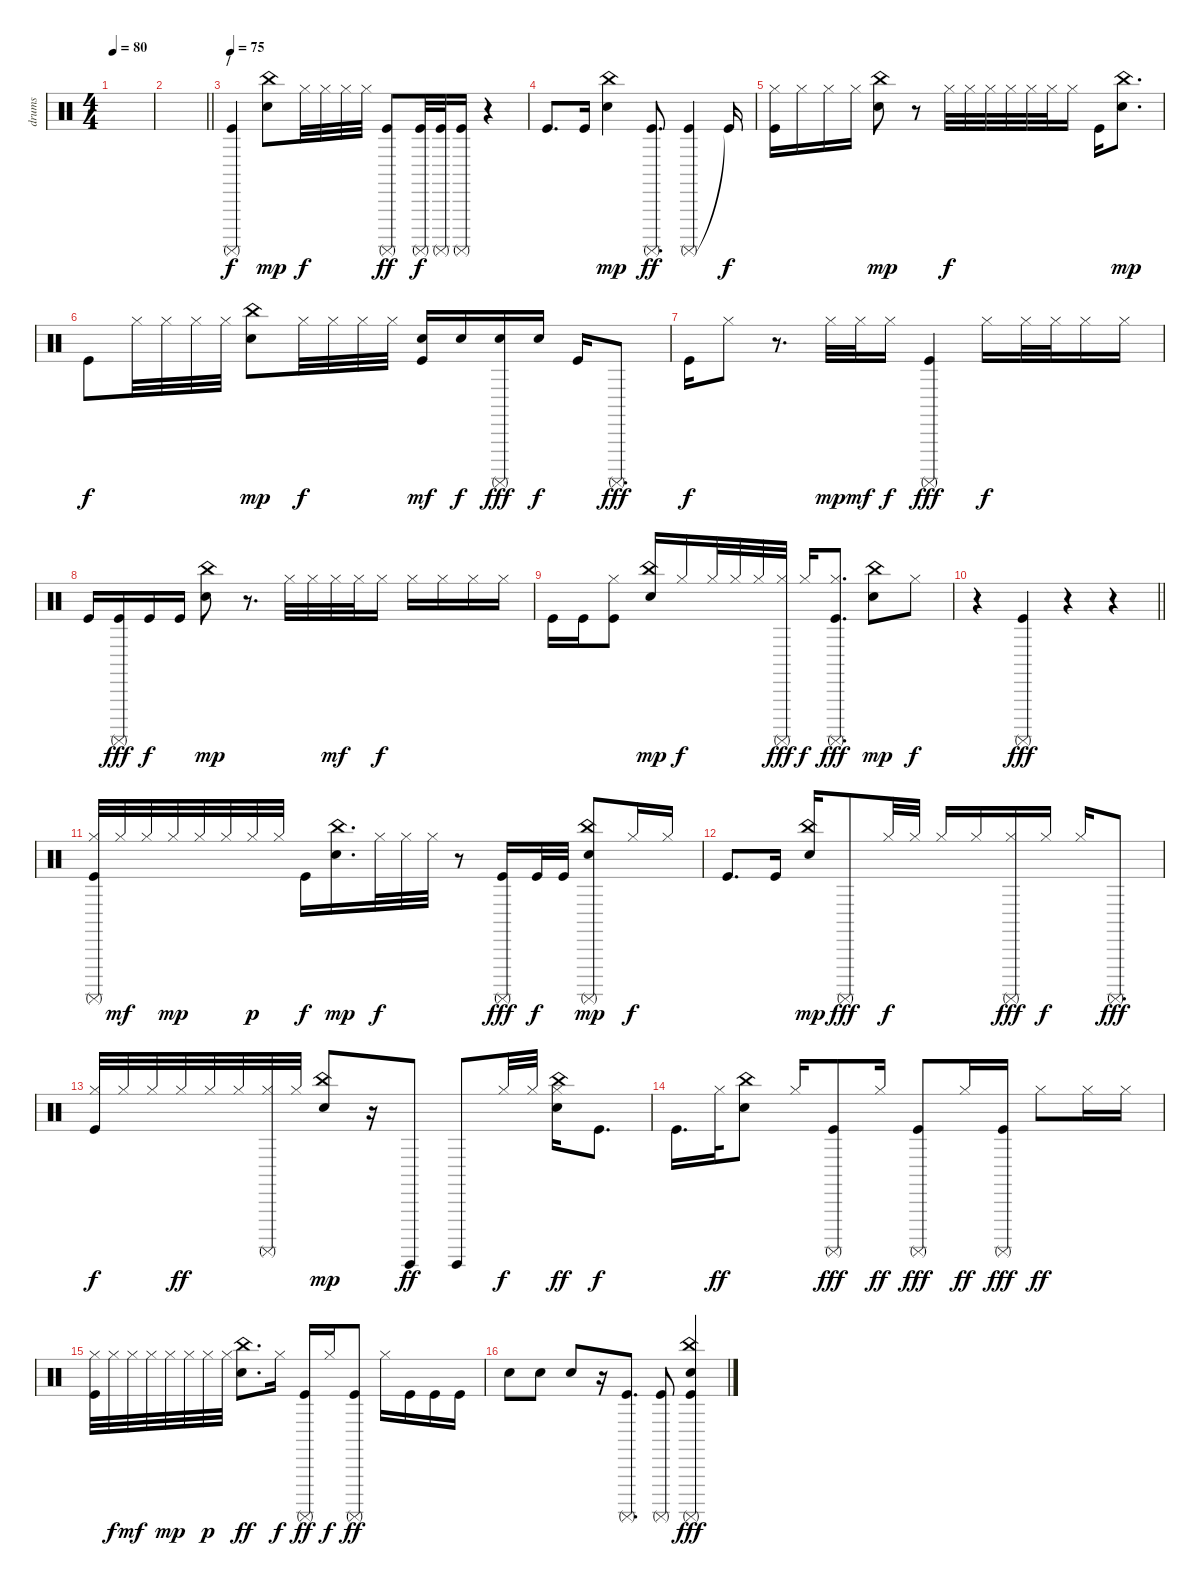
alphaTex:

\track ("drums" "drums") {instrument percussion}
\staff {score}
\articulation defaults
\ts (4 4)
\tempo 80
\clef neutral
\ks c
|
\barLineRight lightlight
|
\section ("" "/")
\tempo 75
("Surdo (mute)" "Kick (hit)").4 ("China (hit)" "Snare (hit) 2").8{dy mp} "Hi-Hat (closed)".32{dy f} "Hi-Hat (closed)".32 "Hi-Hat (closed)".32 "Hi-Hat (closed)".32 ("Surdo (mute)" "Kick (hit)").8{dy ff} ("Surdo (mute)" "Kick (hit)").32{dy f} ("Surdo (mute)" "Kick (hit)").32 ("Surdo (mute)" "Kick (hit)").16 r.4 |
"Kick (hit)".8{d} "Kick (hit)".16 ("China (hit)" "Snare (hit) 2").4{dy mp} ("Surdo (mute)" "Kick (hit)").8{d dy ff} ("Surdo (mute)" "Kick (hit)").4 "Kick (hit)"{t}.16{dy f} |
("Hi-Hat (closed)" "Kick (hit)").16 "Hi-Hat (closed)".16 "Hi-Hat (closed)".16 "Hi-Hat (closed)".16 ("China (hit)" "Snare (hit) 2").8{dy mp} r.8 "Hi-Hat (closed)".32{dy f} "Hi-Hat (closed)".32 "Hi-Hat (closed)".32 "Hi-Hat (closed)".32 "Hi-Hat (closed)".32 "Hi-Hat (closed)".32 "Hi-Hat (closed)".16 "Kick (hit)".16 ("China (hit)" "Snare (hit) 2").8{d dy mp} |
"Kick (hit)".8{dy f} "Hi-Hat (closed)".32 "Hi-Hat (closed)".32 "Hi-Hat (closed)".32 "Hi-Hat (closed)".32 ("China (hit)" "Snare (hit) 2").8{dy mp} "Hi-Hat (closed)".32{dy f} "Hi-Hat (closed)".32 "Hi-Hat (closed)".32 "Hi-Hat (closed)".32 ("Snare (hit) 2" "Kick (hit)").16{dy mf} "Snare (hit) 2".16{dy f} ("Surdo (mute)" "Snare (hit) 2").16{dy fff} "Snare (hit) 2".16{dy f} "Kick (hit)".16 "Surdo (mute)".8{d dy fff} |
"Kick (hit)".16{dy f} "Hi-Hat (closed)".8 r.8{d} "Hi-Hat (closed)".32{dy mp} "Hi-Hat (closed)".32{dy mf} "Hi-Hat (closed)".16{dy f} ("Surdo (mute)" "Kick (hit)").4{dy fff} "Hi-Hat (closed)".16{dy f} "Hi-Hat (closed)".32 "Hi-Hat (closed)".32 "Hi-Hat (closed)".16 "Hi-Hat (closed)".16 |
"Kick (hit)".16 ("Surdo (mute)" "Kick (hit)").16{dy fff} "Kick (hit)".16{dy f} "Kick (hit)".16 ("China (hit)" "Snare (hit) 2").8{dy mp} r.8{d} "Hi-Hat (closed)".32 "Hi-Hat (closed)".32 "Hi-Hat (closed)".32{dy mf} "Hi-Hat (closed)".32 "Hi-Hat (closed)".16{dy f} "Hi-Hat (closed)".16 "Hi-Hat (closed)".16 "Hi-Hat (closed)".16 "Hi-Hat (closed)".16 |
"Kick (hit)".16 "Kick (hit)".16 ("Hi-Hat (closed)" "Kick (hit)").8 ("China (hit)" "Snare (hit) 2").16{dy mp} "Hi-Hat (closed)".16{dy f} "Hi-Hat (closed)".32 "Hi-Hat (closed)".32 "Hi-Hat (closed)".32 ("Hi-Hat (closed)" "Surdo (mute)").32{dy fff} "Hi-Hat (closed)".16{dy f} ("Hi-Hat (closed)" "Surdo (mute)" "Kick (hit)").8{d dy fff} ("China (hit)" "Snare (hit) 2").8{dy mp} "Hi-Hat (closed)".8{dy f} |
\barLineRight lightlight
r.4 ("Surdo (mute)" "Kick (hit)").4{dy fff} r.4 r.4 |
("Hi-Hat (closed)" "Surdo (mute)" "Kick (hit)").32 "Hi-Hat (closed)".32{dy mf} "Hi-Hat (closed)".32 "Hi-Hat (closed)".32{dy mp} "Hi-Hat (closed)".32 "Hi-Hat (closed)".32 "Hi-Hat (closed)".32{dy p} "Hi-Hat (closed)".32 "Kick (hit)".16{dy f} ("China (hit)" "Snare (hit) 2").16{d dy mp} "Hi-Hat (closed)".32{dy f} "Hi-Hat (closed)".32 "Hi-Hat (closed)".32 r.8 ("Surdo (mute)" "Kick (hit)").16{dy fff} "Kick (hit)".32{dy f} "Kick (hit)".32 ("China (hit)" "Surdo (mute)" "Snare (hit) 2").8{dy mp} "Hi-Hat (closed)".16{dy f} "Hi-Hat (closed)".16 |
"Kick (hit)".8{d} "Kick (hit)".16 ("China (hit)" "Snare (hit) 2").16{dy mp} "Surdo (mute)".8{dy fff} "Hi-Hat (closed)".32{dy f} "Hi-Hat (closed)".32 "Hi-Hat (closed)".16 "Hi-Hat (closed)".16 ("Hi-Hat (closed)" "Surdo (mute)").16{dy fff} "Hi-Hat (closed)".16{dy f} "Hi-Hat (closed)".16 "Surdo (mute)".8{d dy fff} |
("Hi-Hat (closed)" "Kick (hit)").32{dy f} "Hi-Hat (closed)".32 "Hi-Hat (closed)".32 "Hi-Hat (closed)".32{dy ff} "Hi-Hat (closed)".32 "Hi-Hat (closed)".32 ("Hi-Hat (closed)" "Surdo (mute)").32 "Hi-Hat (closed)".32 ("China (hit)" "Snare (hit) 2").8{dy mp} r.16 "Guiro (hit)".8{dy ff} "Guiro (hit)".8 "Hi-Hat (closed)".32{dy f} "Hi-Hat (closed)".32 ("Hi-Hat (closed)" "China (hit)" "Snare (hit) 2").16{dy ff} "Kick (hit)".8{d dy f} |
"Kick (hit)".16{d} "Hi-Hat (closed)".32{dy ff} ("China (hit)" "Snare (hit) 2").8 "Hi-Hat (closed)".16 ("Kick (hit)" "Surdo (mute)").8{dy fff} "Hi-Hat (closed)".16{dy ff} ("Kick (hit)" "Surdo (mute)").8{dy fff} "Hi-Hat (closed)".16{dy ff} ("Kick (hit)" "Surdo (mute)").16{dy fff} "Hi-Hat (closed)".8{dy ff} "Hi-Hat (closed)".16 "Hi-Hat (closed)".16 |
("Hi-Hat (closed)" "Kick (hit)").32 "Hi-Hat (closed)".32{dy f} "Hi-Hat (closed)".32{dy mf} "Hi-Hat (closed)".32 "Hi-Hat (closed)".32{dy mp} "Hi-Hat (closed)".32 "Hi-Hat (closed)".32{dy p} "Hi-Hat (closed)".32 ("China (hit)" "Snare (hit) 2").8{d dy ff} "Hi-Hat (closed)".16{dy f} ("Surdo (mute)" "Kick (hit)").16{dy ff} "Hi-Hat (closed)".16{dy f} ("Surdo (mute)" "Kick (hit)").8{dy ff} "Hi-Hat (closed)".16 "Kick (hit)".16 "Kick (hit)".16 "Kick (hit)".16 |
"Snare (hit) 2".8 "Snare (hit) 2".8 "Snare (hit) 2".8 r.16 ("Kick (hit)" "Surdo (mute)").8{d} ("Kick (hit)" "Surdo (mute)").8 ("China (hit)" "Snare (hit) 2" "Kick (hit)" "Surdo (mute)").4{dy fff}
